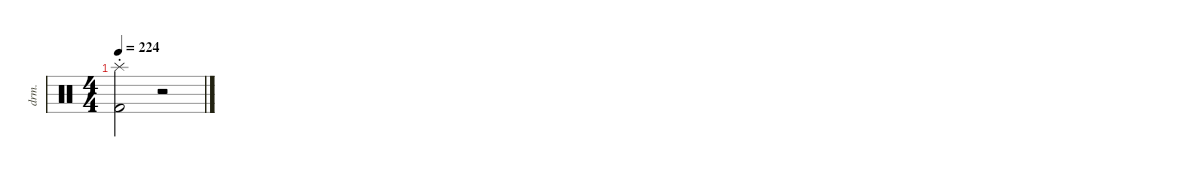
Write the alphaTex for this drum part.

\defaultSystemsLayout 4
\hideDynamics
\bracketExtendMode nobrackets
\otherSystemsTrackNameOrientation horizontal
\track ("Percussion" "drm.") {instrument percussion}
\staff {score}
\articulation defaults
\ts (4 4)
\tempo 224
\clef neutral
\ks c
("Splash (hit)"{st} "Kick (hit) 2"{st}).2{dy f beam Down} r.2{beam Down}
